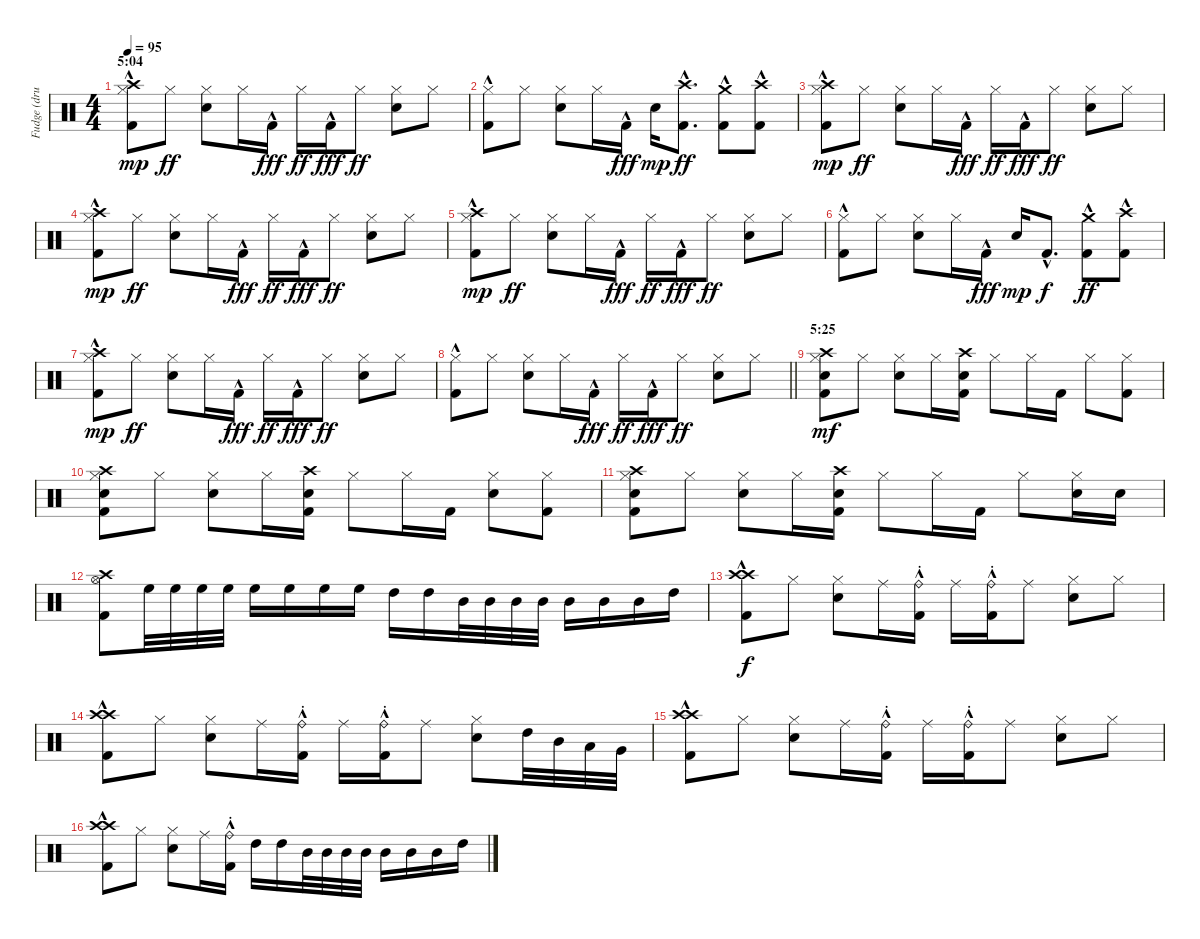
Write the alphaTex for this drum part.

\track ("Fudge (drums)" "Fudge (dru") {instrument percussion}
\staff {score}
\articulation defaults
\ts (4 4)
\section ("" "5:04")
\tempo 95
\clef neutral
\ks c
("Kick (hit) 2"{hac} "Hi-Hat (closed)" "Crash high (hit)").8{dy mp} "Hi-Hat (closed)".8{dy ff} ("Electric Snare (hit)" "Hi-Hat (closed)").8 "Hi-Hat (closed)".16 "Kick (hit) 2"{hac}.16{dy fff} "Hi-Hat (closed)".16{dy ff} "Kick (hit) 2"{hac}.16{dy fff} "Hi-Hat (closed)".8{dy ff} ("Electric Snare (hit)" "Hi-Hat (closed)").8 "Hi-Hat (closed)".8 |
("Kick (hit) 2"{hac} "Hi-Hat (closed)").8 "Hi-Hat (closed)".8 ("Electric Snare (hit)" "Hi-Hat (closed)").8 "Hi-Hat (closed)".16 "Kick (hit) 2"{hac}.16{dy fff} "Electric Snare (hit)".16{dy mp} ("Kick (hit) 2"{hac} "Crash high (hit)"{hac}).8{d dy ff} ("Kick (hit) 2"{hac} "Crash medium (hit)"{hac}).8 ("Kick (hit) 2"{hac} "Crash high (hit)"{hac}).8 |
("Kick (hit) 2"{hac} "Hi-Hat (closed)" "Crash high (hit)").8{dy mp} "Hi-Hat (closed)".8{dy ff} ("Electric Snare (hit)" "Hi-Hat (closed)").8 "Hi-Hat (closed)".16 "Kick (hit) 2"{hac}.16{dy fff} "Hi-Hat (closed)".16{dy ff} "Kick (hit) 2"{hac}.16{dy fff} "Hi-Hat (closed)".8{dy ff} ("Electric Snare (hit)" "Hi-Hat (closed)").8 "Hi-Hat (closed)".8 |
("Kick (hit) 2"{hac} "Hi-Hat (closed)" "Crash high (hit)").8{dy mp} "Hi-Hat (closed)".8{dy ff} ("Electric Snare (hit)" "Hi-Hat (closed)").8 "Hi-Hat (closed)".16 "Kick (hit) 2"{hac}.16{dy fff} "Hi-Hat (closed)".16{dy ff} "Kick (hit) 2"{hac}.16{dy fff} "Hi-Hat (closed)".8{dy ff} ("Electric Snare (hit)" "Hi-Hat (closed)").8 "Hi-Hat (closed)".8 |
("Kick (hit) 2"{hac} "Hi-Hat (closed)" "Crash high (hit)").8{dy mp} "Hi-Hat (closed)".8{dy ff} ("Electric Snare (hit)" "Hi-Hat (closed)").8 "Hi-Hat (closed)".16 "Kick (hit) 2"{hac}.16{dy fff} "Hi-Hat (closed)".16{dy ff} "Kick (hit) 2"{hac}.16{dy fff} "Hi-Hat (closed)".8{dy ff} ("Electric Snare (hit)" "Hi-Hat (closed)").8 "Hi-Hat (closed)".8 |
("Kick (hit) 2"{hac} "Hi-Hat (closed)").8 "Hi-Hat (closed)".8 ("Electric Snare (hit)" "Hi-Hat (closed)").8 "Hi-Hat (closed)".16 "Kick (hit) 2"{hac}.16{dy fff} "Electric Snare (hit)".16{dy mp} "Kick (hit) 2"{hac}.8{d dy f} ("Kick (hit) 2"{hac} "Crash medium (hit)"{hac}).8{dy ff} ("Kick (hit) 2"{hac} "Crash high (hit)"{hac}).8 |
("Kick (hit) 2"{hac} "Hi-Hat (closed)" "Crash high (hit)").8{dy mp} "Hi-Hat (closed)".8{dy ff} ("Electric Snare (hit)" "Hi-Hat (closed)").8 "Hi-Hat (closed)".16 "Kick (hit) 2"{hac}.16{dy fff} "Hi-Hat (closed)".16{dy ff} "Kick (hit) 2"{hac}.16{dy fff} "Hi-Hat (closed)".8{dy ff} ("Electric Snare (hit)" "Hi-Hat (closed)").8 "Hi-Hat (closed)".8 |
\barLineRight lightlight
("Kick (hit) 2"{hac} "Hi-Hat (closed)").8 "Hi-Hat (closed)".8 ("Electric Snare (hit)" "Hi-Hat (closed)").8 "Hi-Hat (closed)".16 "Kick (hit) 2"{hac}.16{dy fff} "Hi-Hat (closed)".16{dy ff} "Kick (hit) 2"{hac}.16{dy fff} "Hi-Hat (closed)".8{dy ff} ("Electric Snare (hit)" "Hi-Hat (closed)").8 "Hi-Hat (closed)".8 |
\section ("" "5:25")
("Kick (hit) 2" "Hi-Hat (closed)" "Electric Snare (hit)" "Crash high (hit)").8{dy mf} "Hi-Hat (closed)".8 ("Hi-Hat (closed)" "Electric Snare (hit)").8 "Hi-Hat (closed)".16 ("Kick (hit) 2" "Electric Snare (hit)" "Crash high (hit)").16 "Hi-Hat (closed)".8 "Hi-Hat (closed)".16 "Kick (hit) 2".16 "Hi-Hat (closed)".8 ("Kick (hit) 2" "Hi-Hat (closed)").8 |
("Kick (hit) 2" "Hi-Hat (closed)" "Electric Snare (hit)" "Crash high (hit)").8 "Hi-Hat (closed)".8 ("Hi-Hat (closed)" "Electric Snare (hit)").8 "Hi-Hat (closed)".16 ("Kick (hit) 2" "Electric Snare (hit)" "Crash high (hit)").16 "Hi-Hat (closed)".8 "Hi-Hat (closed)".16 "Kick (hit) 2".16 ("Hi-Hat (closed)" "Electric Snare (hit)").8 ("Kick (hit) 2" "Hi-Hat (closed)").8 |
("Kick (hit) 2" "Hi-Hat (closed)" "Electric Snare (hit)" "Crash high (hit)").8 "Hi-Hat (closed)".8 ("Hi-Hat (closed)" "Electric Snare (hit)").8 "Hi-Hat (closed)".16 ("Kick (hit) 2" "Electric Snare (hit)" "Crash high (hit)").16 "Hi-Hat (closed)".8 "Hi-Hat (closed)".16 "Kick (hit) 2".16 "Hi-Hat (closed)".8 ("Hi-Hat (closed)" "Electric Snare (hit)").16 "Electric Snare (hit)".16 |
("Kick (hit) 2" "Hi-Hat (open)" "Crash high (hit)").8 "High Floor Tom (hit)".32 "High Floor Tom (hit)".32 "High Floor Tom (hit)".32 "High Floor Tom (hit)".32 "High Floor Tom (hit)".16 "High Floor Tom (hit)".16 "High Floor Tom (hit)".16 "High Floor Tom (hit)".16 "High Tom (hit)".16 "High Tom (hit)".16 "Mid Tom (hit)".32 "Mid Tom (hit)".32 "Mid Tom (hit)".32 "Mid Tom (hit)".32 "Mid Tom (hit)".16 "Mid Tom (hit)".16 "Mid Tom (hit)".16 "High Tom (hit)".16 |
("Kick (hit) 2"{hac} "Crash high (hit)" "Crash high (hit)").8{dy f} "Hi-Hat (closed)".8 ("Electric Snare (hit)" "Hi-Hat (closed)").8 "Ride (middle)".16 ("Kick (hit) 2"{hac} "Ride (bell)"{hac st}).16 "Ride (middle)".16 ("Kick (hit) 2"{hac} "Ride (bell)"{hac st}).16 "Ride (middle)".8 ("Electric Snare (hit)" "Hi-Hat (closed)").8 "Hi-Hat (closed)".8 |
("Kick (hit) 2"{hac} "Crash high (hit)" "Crash high (hit)").8 "Hi-Hat (closed)".8 ("Electric Snare (hit)" "Hi-Hat (closed)").8 "Ride (middle)".16 ("Kick (hit) 2"{hac} "Ride (bell)"{hac st}).16 "Ride (middle)".16 ("Kick (hit) 2"{hac} "Ride (bell)"{hac st}).16 "Ride (middle)".8 ("Electric Snare (hit)" "Hi-Hat (closed)").8 "High Tom (hit)".32 "Mid Tom (hit)".32 "Low Tom (hit)".32 "Very Low Tom (hit)".32 |
("Kick (hit) 2"{hac} "Crash high (hit)" "Crash high (hit)").8 "Hi-Hat (closed)".8 ("Electric Snare (hit)" "Hi-Hat (closed)").8 "Ride (middle)".16 ("Kick (hit) 2"{hac} "Ride (bell)"{hac st}).16 "Ride (middle)".16 ("Kick (hit) 2"{hac} "Ride (bell)"{hac st}).16 "Ride (middle)".8 ("Electric Snare (hit)" "Hi-Hat (closed)").8 "Hi-Hat (closed)".8 |
("Kick (hit) 2"{hac} "Crash high (hit)" "Crash high (hit)").8 "Hi-Hat (closed)".8 ("Electric Snare (hit)" "Hi-Hat (closed)").8 "Ride (middle)".16 ("Kick (hit) 2"{hac} "Ride (bell)"{hac st}).16 "High Tom (hit)".16 "High Tom (hit)".16 "Mid Tom (hit)".32 "Mid Tom (hit)".32 "Mid Tom (hit)".32 "Mid Tom (hit)".32 "Mid Tom (hit)".16 "Mid Tom (hit)".16 "Mid Tom (hit)".16 "High Tom (hit)".16
